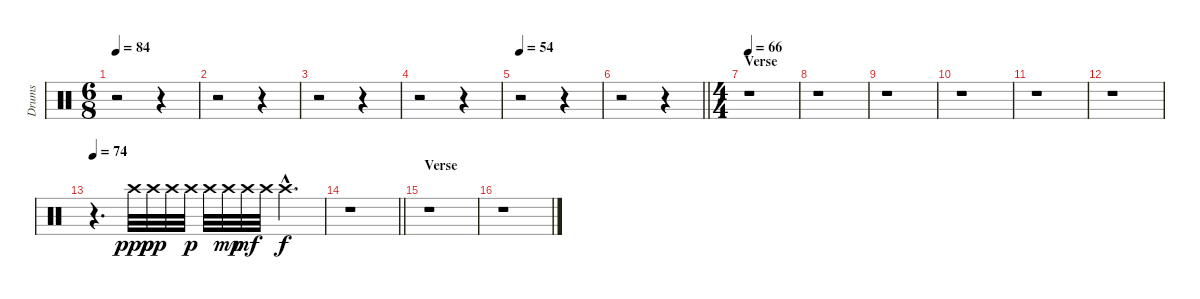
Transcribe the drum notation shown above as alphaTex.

\track ("Drums" "Drums") {instrument percussion}
\staff {score}
\articulation defaults
\ts (6 8)
\tempo 84
\clef neutral
\ks c
r.2{dy ppp} r.4 |
r.2 r.4 |
r.2 r.4 |
r.2 r.4 |
\tempo 54
r.2 r.4 |
\barLineRight lightlight
r.2 r.4 |
\ts (4 4)
\section ("" "Verse")
\tempo 66
r.1 |
r.1 |
r.1 |
r.1 |
r.1 |
r.1 |
\tempo 74
r.4{d} "Crash high (hit)".32 "Crash high (hit)".32{dy pp} "Crash high (hit)".32 "Crash high (hit)".32{dy p} "Crash high (hit)".32 "Crash high (hit)".32{dy mp} "Crash high (hit)".32{dy mf} "Crash high (hit)".32 "Crash high (hit)"{hac}.4{d dy f} |
\barLineRight lightlight
r.1 |
\section ("" "Verse")
r.1 |
r.1
